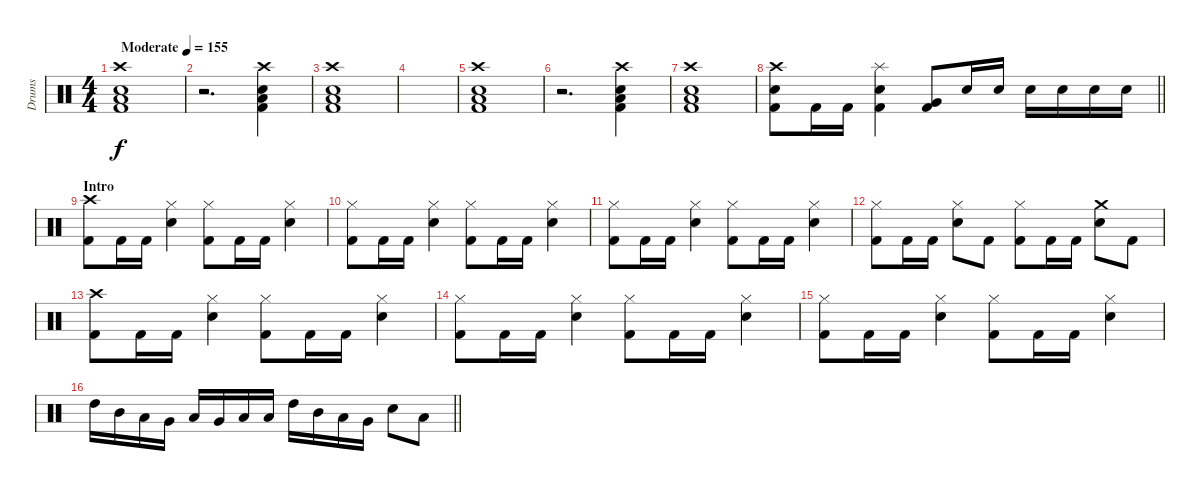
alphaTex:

\track ("Drums" "Drums") {instrument percussion}
\staff {score}
\articulation defaults
\ts (4 4)
\tempo (155 "Moderate")
\clef neutral
\ks c
("Crash high (hit)" "Snare (hit) 2" "Low Floor Tom (hit)" "Kick (hit) 2").1{dy f} |
r.2{d} ("Crash high (hit)" "Snare (hit) 2" "Low Floor Tom (hit)" "Kick (hit) 2").4 |
("Crash high (hit)" "Snare (hit) 2" "Low Floor Tom (hit)" "Kick (hit) 2").1 |
|
("Crash high (hit)" "Snare (hit) 2" "Low Floor Tom (hit)" "Kick (hit) 2").1 |
r.2{d} ("Crash high (hit)" "Snare (hit) 2" "Low Floor Tom (hit)" "Kick (hit) 2").4 |
("Crash high (hit)" "Snare (hit) 2" "Low Floor Tom (hit)" "Kick (hit) 2").1 |
\barLineRight lightlight
("Crash high (hit)" "Snare (hit) 2" "Kick (hit) 2").8 "Kick (hit) 2".16 "Kick (hit) 2".16 ("Splash (hit)" "Snare (hit) 2" "Kick (hit) 2").4 ("Very Low Tom (hit)" "Kick (hit) 2").8 "Snare (hit) 2".16 "Snare (hit) 2".16 "Snare (hit) 2".16 "Snare (hit) 2".16 "Electric Snare (hit)".16 "Electric Snare (hit)".16 |
\section ("" "Intro")
("Crash high (hit)" "Kick (hit) 2").8 "Kick (hit) 2".16 "Kick (hit) 2".16 ("Hi-Hat (closed)" "Snare (hit) 2").4 ("Hi-Hat (closed)" "Kick (hit) 2").8 "Kick (hit) 2".16 "Kick (hit) 2".16 ("Hi-Hat (closed)" "Snare (hit) 2").4 |
("Hi-Hat (closed)" "Kick (hit) 2").8 "Kick (hit) 2".16 "Kick (hit) 2".16 ("Hi-Hat (closed)" "Snare (hit) 2").4 ("Hi-Hat (closed)" "Kick (hit) 2").8 "Kick (hit) 2".16 "Kick (hit) 2".16 ("Hi-Hat (closed)" "Snare (hit) 2").4 |
("Hi-Hat (closed)" "Kick (hit) 2").8 "Kick (hit) 2".16 "Kick (hit) 2".16 ("Hi-Hat (closed)" "Snare (hit) 2").4 ("Hi-Hat (closed)" "Kick (hit) 2").8 "Kick (hit) 2".16 "Kick (hit) 2".16 ("Hi-Hat (closed)" "Snare (hit) 2").4 |
("Hi-Hat (closed)" "Kick (hit) 2").8 "Kick (hit) 2".16 "Kick (hit) 2".16 ("Hi-Hat (closed)" "Snare (hit) 2").8 "Kick (hit) 2".8 ("Hi-Hat (closed)" "Kick (hit) 2").8 "Kick (hit) 2".16 "Kick (hit) 2".16 ("Crash medium (hit)" "Snare (hit) 2").8 "Kick (hit) 2".8 |
("Crash high (hit)" "Kick (hit) 2").8 "Kick (hit) 2".16 "Kick (hit) 2".16 ("Hi-Hat (closed)" "Snare (hit) 2").4 ("Hi-Hat (closed)" "Kick (hit) 2").8 "Kick (hit) 2".16 "Kick (hit) 2".16 ("Hi-Hat (closed)" "Snare (hit) 2").4 |
("Hi-Hat (closed)" "Kick (hit) 2").8 "Kick (hit) 2".16 "Kick (hit) 2".16 ("Hi-Hat (closed)" "Snare (hit) 2").4 ("Hi-Hat (closed)" "Kick (hit) 2").8 "Kick (hit) 2".16 "Kick (hit) 2".16 ("Hi-Hat (closed)" "Snare (hit) 2").4 |
("Hi-Hat (closed)" "Kick (hit) 2").8 "Kick (hit) 2".16 "Kick (hit) 2".16 ("Hi-Hat (closed)" "Snare (hit) 2").4 ("Hi-Hat (closed)" "Kick (hit) 2").8 "Kick (hit) 2".16 "Kick (hit) 2".16 ("Hi-Hat (closed)" "Snare (hit) 2").4 |
\barLineRight lightlight "High Tom (hit)".16 "Mid Tom (hit)".16 "Low Tom (hit)".16 "Very Low Tom (hit)".16 "Low Tom (hit)".16 "Very Low Tom (hit)".16 "Low Floor Tom (hit)".16 "Low Tom (hit)".16 "High Tom (hit)".16 "Mid Tom (hit)".16 "Low Tom (hit)".16 "Very Low Tom (hit)".16 "Snare (hit) 2".8 "Low Tom (hit)".8
